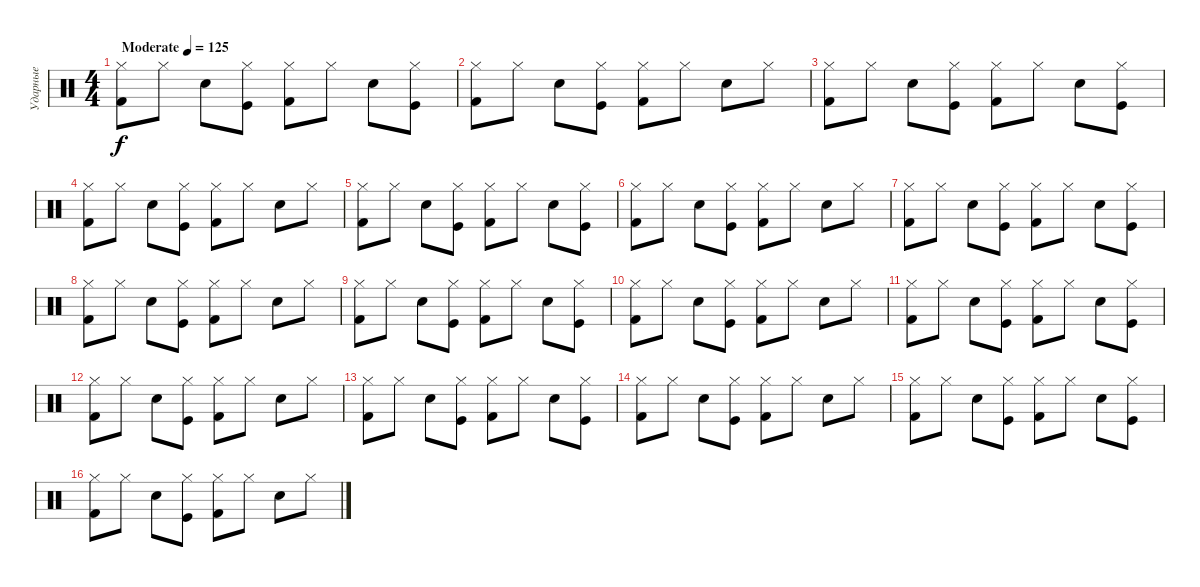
\track ("Ударные" "Ударные") {instrument percussion}
\staff {score}
\articulation defaults
\ts (4 4)
\tempo (125 "Moderate")
\clef neutral
\ks c
("Hi-Hat (closed)" "Kick (hit) 2").8{dy f} "Hi-Hat (closed)".8 "Electric Snare (hit)".8 ("Hi-Hat (closed)" "Kick (hit)").8 ("Hi-Hat (closed)" "Kick (hit) 2").8 "Hi-Hat (closed)".8 "Electric Snare (hit)".8 ("Hi-Hat (closed)" "Kick (hit)").8 |
("Hi-Hat (closed)" "Kick (hit) 2").8 "Hi-Hat (closed)".8 "Electric Snare (hit)".8 ("Hi-Hat (closed)" "Kick (hit)").8 ("Hi-Hat (closed)" "Kick (hit) 2").8 "Hi-Hat (closed)".8 "Electric Snare (hit)".8 "Hi-Hat (closed)".8 |
("Hi-Hat (closed)" "Kick (hit) 2").8 "Hi-Hat (closed)".8 "Electric Snare (hit)".8 ("Hi-Hat (closed)" "Kick (hit)").8 ("Hi-Hat (closed)" "Kick (hit) 2").8 "Hi-Hat (closed)".8 "Electric Snare (hit)".8 ("Hi-Hat (closed)" "Kick (hit)").8 |
("Hi-Hat (closed)" "Kick (hit) 2").8 "Hi-Hat (closed)".8 "Electric Snare (hit)".8 ("Hi-Hat (closed)" "Kick (hit)").8 ("Hi-Hat (closed)" "Kick (hit) 2").8 "Hi-Hat (closed)".8 "Electric Snare (hit)".8 "Hi-Hat (closed)".8 |
("Hi-Hat (closed)" "Kick (hit) 2").8 "Hi-Hat (closed)".8 "Electric Snare (hit)".8 ("Hi-Hat (closed)" "Kick (hit)").8 ("Hi-Hat (closed)" "Kick (hit) 2").8 "Hi-Hat (closed)".8 "Electric Snare (hit)".8 ("Hi-Hat (closed)" "Kick (hit)").8 |
("Hi-Hat (closed)" "Kick (hit) 2").8 "Hi-Hat (closed)".8 "Electric Snare (hit)".8 ("Hi-Hat (closed)" "Kick (hit)").8 ("Hi-Hat (closed)" "Kick (hit) 2").8 "Hi-Hat (closed)".8 "Electric Snare (hit)".8 "Hi-Hat (closed)".8 |
("Hi-Hat (closed)" "Kick (hit) 2").8 "Hi-Hat (closed)".8 "Electric Snare (hit)".8 ("Hi-Hat (closed)" "Kick (hit)").8 ("Hi-Hat (closed)" "Kick (hit) 2").8 "Hi-Hat (closed)".8 "Electric Snare (hit)".8 ("Hi-Hat (closed)" "Kick (hit)").8 |
("Hi-Hat (closed)" "Kick (hit) 2").8 "Hi-Hat (closed)".8 "Electric Snare (hit)".8 ("Hi-Hat (closed)" "Kick (hit)").8 ("Hi-Hat (closed)" "Kick (hit) 2").8 "Hi-Hat (closed)".8 "Electric Snare (hit)".8 "Hi-Hat (closed)".8 |
("Hi-Hat (closed)" "Kick (hit) 2").8 "Hi-Hat (closed)".8 "Electric Snare (hit)".8 ("Hi-Hat (closed)" "Kick (hit)").8 ("Hi-Hat (closed)" "Kick (hit) 2").8 "Hi-Hat (closed)".8 "Electric Snare (hit)".8 ("Hi-Hat (closed)" "Kick (hit)").8 |
("Hi-Hat (closed)" "Kick (hit) 2").8 "Hi-Hat (closed)".8 "Electric Snare (hit)".8 ("Hi-Hat (closed)" "Kick (hit)").8 ("Hi-Hat (closed)" "Kick (hit) 2").8 "Hi-Hat (closed)".8 "Electric Snare (hit)".8 "Hi-Hat (closed)".8 |
("Hi-Hat (closed)" "Kick (hit) 2").8 "Hi-Hat (closed)".8 "Electric Snare (hit)".8 ("Hi-Hat (closed)" "Kick (hit)").8 ("Hi-Hat (closed)" "Kick (hit) 2").8 "Hi-Hat (closed)".8 "Electric Snare (hit)".8 ("Hi-Hat (closed)" "Kick (hit)").8 |
("Hi-Hat (closed)" "Kick (hit) 2").8 "Hi-Hat (closed)".8 "Electric Snare (hit)".8 ("Hi-Hat (closed)" "Kick (hit)").8 ("Hi-Hat (closed)" "Kick (hit) 2").8 "Hi-Hat (closed)".8 "Electric Snare (hit)".8 "Hi-Hat (closed)".8 |
("Hi-Hat (closed)" "Kick (hit) 2").8 "Hi-Hat (closed)".8 "Electric Snare (hit)".8 ("Hi-Hat (closed)" "Kick (hit)").8 ("Hi-Hat (closed)" "Kick (hit) 2").8 "Hi-Hat (closed)".8 "Electric Snare (hit)".8 ("Hi-Hat (closed)" "Kick (hit)").8 |
("Hi-Hat (closed)" "Kick (hit) 2").8 "Hi-Hat (closed)".8 "Electric Snare (hit)".8 ("Hi-Hat (closed)" "Kick (hit)").8 ("Hi-Hat (closed)" "Kick (hit) 2").8 "Hi-Hat (closed)".8 "Electric Snare (hit)".8 "Hi-Hat (closed)".8 |
("Hi-Hat (closed)" "Kick (hit) 2").8 "Hi-Hat (closed)".8 "Electric Snare (hit)".8 ("Hi-Hat (closed)" "Kick (hit)").8 ("Hi-Hat (closed)" "Kick (hit) 2").8 "Hi-Hat (closed)".8 "Electric Snare (hit)".8 ("Hi-Hat (closed)" "Kick (hit)").8 |
("Hi-Hat (closed)" "Kick (hit) 2").8 "Hi-Hat (closed)".8 "Electric Snare (hit)".8 ("Hi-Hat (closed)" "Kick (hit)").8 ("Hi-Hat (closed)" "Kick (hit) 2").8 "Hi-Hat (closed)".8 "Electric Snare (hit)".8 "Hi-Hat (closed)".8
